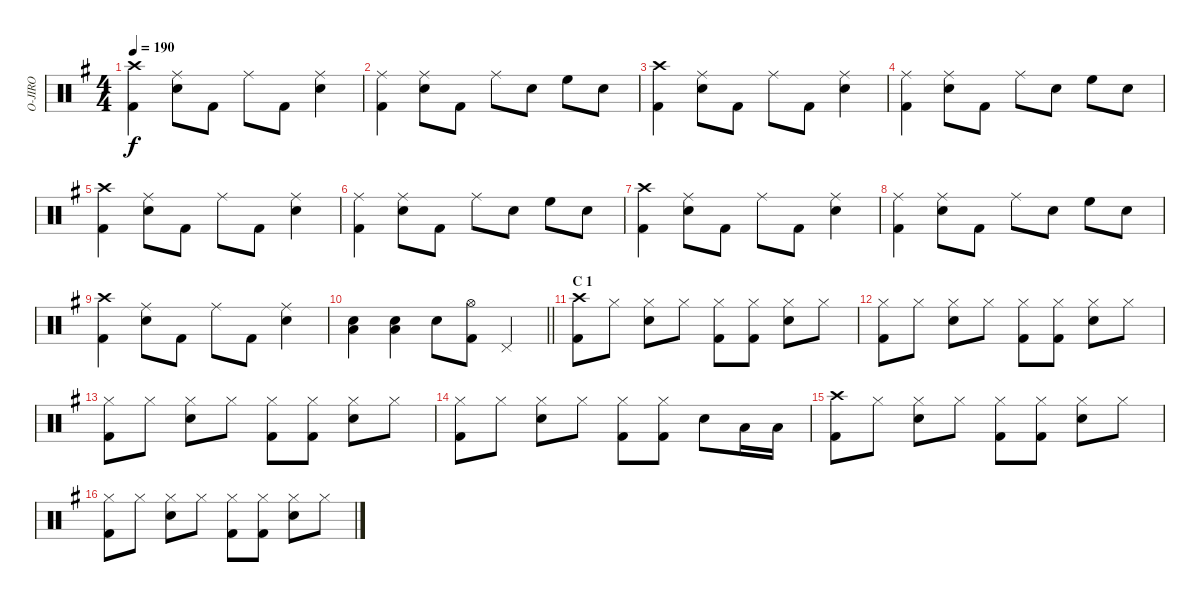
\track ("O-JIRO" "O-JIRO") {instrument percussion}
\staff {score}
\articulation defaults
\ts (4 4)
\tempo 190
\clef neutral
\ks g
("Crash high (hit)" "Kick (hit) 2").4{dy f} ("Ride (middle)" "Snare (hit) 2").8 "Kick (hit) 2".8 "Ride (middle)".8 "Kick (hit) 2".8 ("Ride (middle)" "Snare (hit) 2").4 |
("Ride (middle)" "Kick (hit) 2").4 ("Ride (middle)" "Snare (hit) 2").8 "Kick (hit) 2".8 "Ride (middle)".8 "Snare (hit) 2".8 "High Floor Tom (hit)".8 "Snare (hit) 2".8 |
("Crash high (hit)" "Kick (hit) 2").4 ("Ride (middle)" "Snare (hit) 2").8 "Kick (hit) 2".8 "Ride (middle)".8 "Kick (hit) 2".8 ("Ride (middle)" "Snare (hit) 2").4 |
("Ride (middle)" "Kick (hit) 2").4 ("Ride (middle)" "Snare (hit) 2").8 "Kick (hit) 2".8 "Ride (middle)".8 "Snare (hit) 2".8 "High Floor Tom (hit)".8 "Snare (hit) 2".8 |
("Crash high (hit)" "Kick (hit) 2").4 ("Ride (middle)" "Snare (hit) 2").8 "Kick (hit) 2".8 "Ride (middle)".8 "Kick (hit) 2".8 ("Ride (middle)" "Snare (hit) 2").4 |
("Ride (middle)" "Kick (hit) 2").4 ("Ride (middle)" "Snare (hit) 2").8 "Kick (hit) 2".8 "Ride (middle)".8 "Snare (hit) 2".8 "High Floor Tom (hit)".8 "Snare (hit) 2".8 |
("Crash high (hit)" "Kick (hit) 2").4 ("Ride (middle)" "Snare (hit) 2").8 "Kick (hit) 2".8 "Ride (middle)".8 "Kick (hit) 2".8 ("Ride (middle)" "Snare (hit) 2").4 |
("Ride (middle)" "Kick (hit) 2").4 ("Ride (middle)" "Snare (hit) 2").8 "Kick (hit) 2".8 "Ride (middle)".8 "Snare (hit) 2".8 "High Floor Tom (hit)".8 "Snare (hit) 2".8 |
("Crash high (hit)" "Kick (hit) 2").4 ("Ride (middle)" "Snare (hit) 2").8 "Kick (hit) 2".8 "Ride (middle)".8 "Kick (hit) 2".8 ("Ride (middle)" "Snare (hit) 2").4 |
\barLineRight lightlight
("Snare (hit) 2" "Low Tom (hit)").4 ("Snare (hit) 2" "Low Tom (hit)").4 "Snare (hit) 2".8 ("Hi-Hat (open)" "Kick (hit) 2").8 "Pedal Hi-Hat (hit)".4 |
\section ("" "C 1")
("Crash high (hit)" "Kick (hit) 2").8 "Hi-Hat (closed)".8 ("Hi-Hat (closed)" "Snare (hit) 2").8 "Hi-Hat (closed)".8 ("Hi-Hat (closed)" "Kick (hit) 2").8 ("Hi-Hat (closed)" "Kick (hit) 2").8 ("Hi-Hat (closed)" "Snare (hit) 2").8 "Hi-Hat (closed)".8 |
("Hi-Hat (closed)" "Kick (hit) 2").8 "Hi-Hat (closed)".8 ("Hi-Hat (closed)" "Snare (hit) 2").8 "Hi-Hat (closed)".8 ("Hi-Hat (closed)" "Kick (hit) 2").8 ("Hi-Hat (closed)" "Kick (hit) 2").8 ("Hi-Hat (closed)" "Snare (hit) 2").8 "Hi-Hat (closed)".8 |
("Hi-Hat (closed)" "Kick (hit) 2").8 "Hi-Hat (closed)".8 ("Hi-Hat (closed)" "Snare (hit) 2").8 "Hi-Hat (closed)".8 ("Hi-Hat (closed)" "Kick (hit) 2").8 ("Hi-Hat (closed)" "Kick (hit) 2").8 ("Hi-Hat (closed)" "Snare (hit) 2").8 "Hi-Hat (closed)".8 |
("Hi-Hat (closed)" "Kick (hit) 2").8 "Hi-Hat (closed)".8 ("Hi-Hat (closed)" "Snare (hit) 2").8 "Hi-Hat (closed)".8 ("Hi-Hat (closed)" "Kick (hit) 2").8 ("Hi-Hat (closed)" "Kick (hit) 2").8 "Snare (hit) 2".8 "Low Tom (hit)".16 "Low Tom (hit)".16 |
("Crash high (hit)" "Kick (hit) 2").8 "Hi-Hat (closed)".8 ("Hi-Hat (closed)" "Snare (hit) 2").8 "Hi-Hat (closed)".8 ("Hi-Hat (closed)" "Kick (hit) 2").8 ("Hi-Hat (closed)" "Kick (hit) 2").8 ("Hi-Hat (closed)" "Snare (hit) 2").8 "Hi-Hat (closed)".8 |
("Hi-Hat (closed)" "Kick (hit) 2").8 "Hi-Hat (closed)".8 ("Hi-Hat (closed)" "Snare (hit) 2").8 "Hi-Hat (closed)".8 ("Hi-Hat (closed)" "Kick (hit) 2").8 ("Hi-Hat (closed)" "Kick (hit) 2").8 ("Hi-Hat (closed)" "Snare (hit) 2").8 "Hi-Hat (closed)".8
